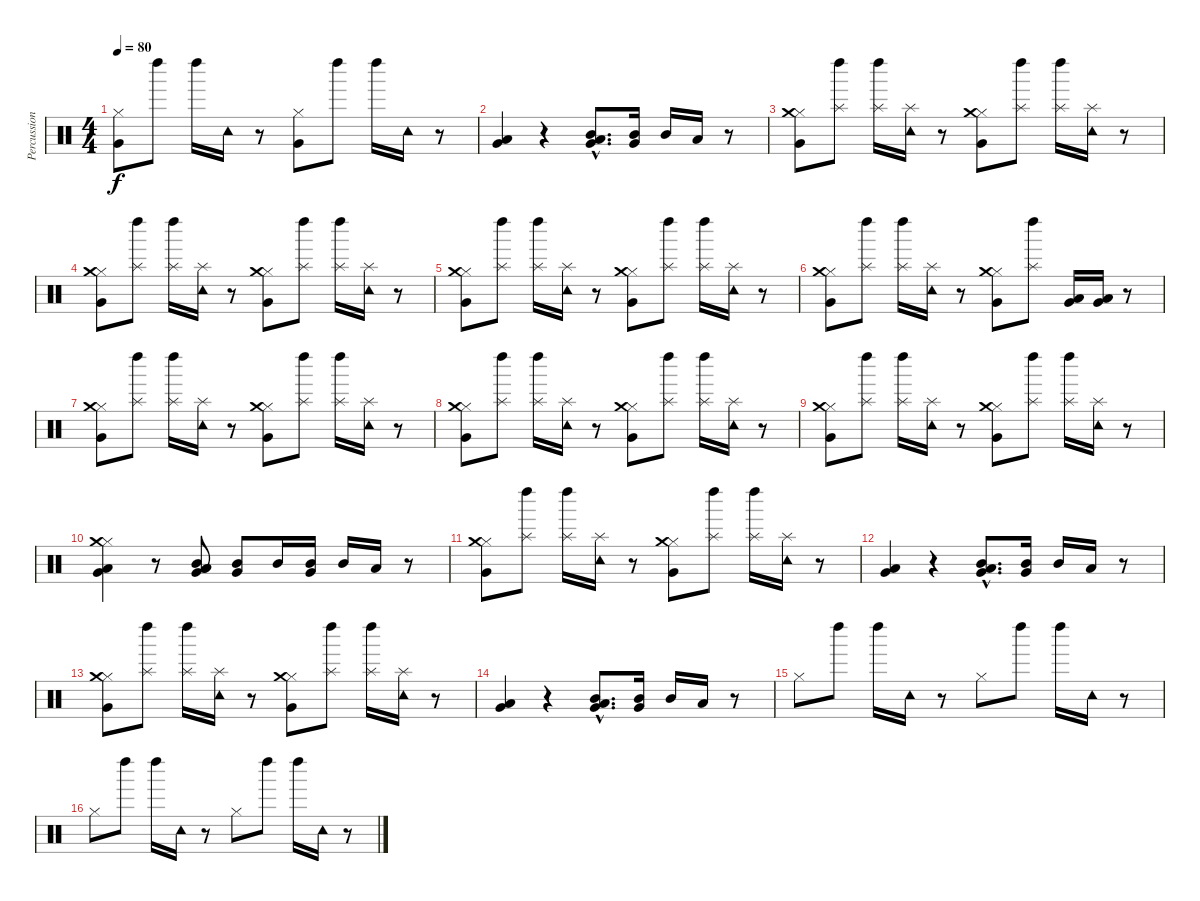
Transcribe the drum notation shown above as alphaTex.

\track ("Percussion" "Percussion") {instrument percussion}
\staff {score}
\articulation defaults
\ts (4 4)
\tempo 80
\clef neutral
\ks c
("Hi-Hat (closed)" "Very Low Tom (hit)").8{dy f} "Left Maraca (hit)".8 "Left Maraca (hit)".16 "Tambourine (hit)".16 r.8 ("Hi-Hat (closed)" "Very Low Tom (hit)").8 "Left Maraca (hit)".8 "Left Maraca (hit)".16 "Tambourine (hit)".16 r.8 |
("Low Tom (hit)" "Very Low Tom (hit)").4 r.4 ("Low Floor Tom (hit)"{hac} "Mid Tom (hit)"{hac} "Very Low Tom (hit)"{hac}).8{d} ("Very Low Tom (hit)" "Mid Tom (hit)").16 "Mid Tom (hit)".16 "Low Tom (hit)".16 r.8 |
("Hi-Hat (closed)" "Very Low Tom (hit)" "Crash medium (hit)").8 ("Left Maraca (hit)" "Splash (hit)").8 ("Left Maraca (hit)" "Splash (hit)").16 ("Tambourine (hit)" "Splash (hit)").16 r.8 ("Hi-Hat (closed)" "Very Low Tom (hit)" "Crash medium (hit)").8 ("Left Maraca (hit)" "Splash (hit)").8 ("Left Maraca (hit)" "Splash (hit)").16 ("Tambourine (hit)" "Splash (hit)").16 r.8 |
("Hi-Hat (closed)" "Very Low Tom (hit)" "Crash medium (hit)").8 ("Left Maraca (hit)" "Splash (hit)").8 ("Left Maraca (hit)" "Splash (hit)").16 ("Tambourine (hit)" "Splash (hit)").16 r.8 ("Hi-Hat (closed)" "Very Low Tom (hit)" "Crash medium (hit)").8 ("Left Maraca (hit)" "Splash (hit)").8 ("Left Maraca (hit)" "Splash (hit)").16 ("Tambourine (hit)" "Splash (hit)").16 r.8 |
("Hi-Hat (closed)" "Very Low Tom (hit)" "Crash medium (hit)").8 ("Left Maraca (hit)" "Splash (hit)").8 ("Left Maraca (hit)" "Splash (hit)").16 ("Tambourine (hit)" "Splash (hit)").16 r.8 ("Hi-Hat (closed)" "Very Low Tom (hit)" "Crash medium (hit)").8 ("Left Maraca (hit)" "Splash (hit)").8 ("Left Maraca (hit)" "Splash (hit)").16 ("Tambourine (hit)" "Splash (hit)").16 r.8 |
("Hi-Hat (closed)" "Very Low Tom (hit)" "Crash medium (hit)").8 ("Left Maraca (hit)" "Splash (hit)").8 ("Left Maraca (hit)" "Splash (hit)").16 ("Tambourine (hit)" "Splash (hit)").16 r.8 ("Hi-Hat (closed)" "Very Low Tom (hit)" "Crash medium (hit)").8 ("Left Maraca (hit)" "Splash (hit)").8 ("Low Tom (hit)" "Very Low Tom (hit)").16 ("Low Tom (hit)" "Very Low Tom (hit)").16 r.8 |
("Hi-Hat (closed)" "Very Low Tom (hit)" "Crash medium (hit)").8 ("Left Maraca (hit)" "Splash (hit)").8 ("Left Maraca (hit)" "Splash (hit)").16 ("Tambourine (hit)" "Splash (hit)").16 r.8 ("Hi-Hat (closed)" "Very Low Tom (hit)" "Crash medium (hit)").8 ("Left Maraca (hit)" "Splash (hit)").8 ("Left Maraca (hit)" "Splash (hit)").16 ("Tambourine (hit)" "Splash (hit)").16 r.8 |
("Hi-Hat (closed)" "Very Low Tom (hit)" "Crash medium (hit)").8 ("Left Maraca (hit)" "Splash (hit)").8 ("Left Maraca (hit)" "Splash (hit)").16 ("Tambourine (hit)" "Splash (hit)").16 r.8 ("Hi-Hat (closed)" "Very Low Tom (hit)" "Crash medium (hit)").8 ("Left Maraca (hit)" "Splash (hit)").8 ("Left Maraca (hit)" "Splash (hit)").16 ("Tambourine (hit)" "Splash (hit)").16 r.8 |
("Hi-Hat (closed)" "Very Low Tom (hit)" "Crash medium (hit)").8 ("Left Maraca (hit)" "Splash (hit)").8 ("Left Maraca (hit)" "Splash (hit)").16 ("Tambourine (hit)" "Splash (hit)").16 r.8 ("Hi-Hat (closed)" "Very Low Tom (hit)" "Crash medium (hit)").8 ("Left Maraca (hit)" "Splash (hit)").8 ("Left Maraca (hit)" "Splash (hit)").16 ("Tambourine (hit)" "Splash (hit)").16 r.8 |
("Hi-Hat (closed)" "Very Low Tom (hit)" "Crash medium (hit)" "Low Tom (hit)").4 r.8 ("Low Floor Tom (hit)" "Mid Tom (hit)" "Very Low Tom (hit)" "Low Tom (hit)").8 ("Very Low Tom (hit)" "Mid Tom (hit)").8 "Mid Tom (hit)".16 ("Very Low Tom (hit)" "Mid Tom (hit)").16 "Mid Tom (hit)".16 "Low Tom (hit)".16 r.8 |
("Hi-Hat (closed)" "Very Low Tom (hit)" "Crash medium (hit)").8 ("Left Maraca (hit)" "Splash (hit)").8 ("Left Maraca (hit)" "Splash (hit)").16 ("Tambourine (hit)" "Splash (hit)").16 r.8 ("Hi-Hat (closed)" "Very Low Tom (hit)" "Crash medium (hit)").8 ("Left Maraca (hit)" "Splash (hit)").8 ("Left Maraca (hit)" "Splash (hit)").16 ("Tambourine (hit)" "Splash (hit)").16 r.8 |
("Low Tom (hit)" "Very Low Tom (hit)").4 r.4 ("Low Floor Tom (hit)"{hac} "Mid Tom (hit)"{hac} "Very Low Tom (hit)"{hac}).8{d} ("Very Low Tom (hit)" "Mid Tom (hit)").16 "Mid Tom (hit)".16 "Low Tom (hit)".16 r.8 |
("Hi-Hat (closed)" "Very Low Tom (hit)" "Crash medium (hit)").8 ("Left Maraca (hit)" "Splash (hit)").8 ("Left Maraca (hit)" "Splash (hit)").16 ("Tambourine (hit)" "Splash (hit)").16 r.8 ("Hi-Hat (closed)" "Very Low Tom (hit)" "Crash medium (hit)").8 ("Left Maraca (hit)" "Splash (hit)").8 ("Left Maraca (hit)" "Splash (hit)").16 ("Tambourine (hit)" "Splash (hit)").16 r.8 |
("Low Tom (hit)" "Very Low Tom (hit)").4 r.4 ("Low Floor Tom (hit)"{hac} "Mid Tom (hit)"{hac} "Very Low Tom (hit)"{hac}).8{d} ("Very Low Tom (hit)" "Mid Tom (hit)").16 "Mid Tom (hit)".16 "Low Tom (hit)".16 r.8 |
"Hi-Hat (closed)".8 "Left Maraca (hit)".8 "Left Maraca (hit)".16 "Tambourine (hit)".16 r.8 "Hi-Hat (closed)".8 "Left Maraca (hit)".8 "Left Maraca (hit)".16 "Tambourine (hit)".16 r.8 |
"Hi-Hat (closed)".8 "Left Maraca (hit)".8 "Left Maraca (hit)".16 "Tambourine (hit)".16 r.8 "Hi-Hat (closed)".8 "Left Maraca (hit)".8 "Left Maraca (hit)".16 "Tambourine (hit)".16 r.8
